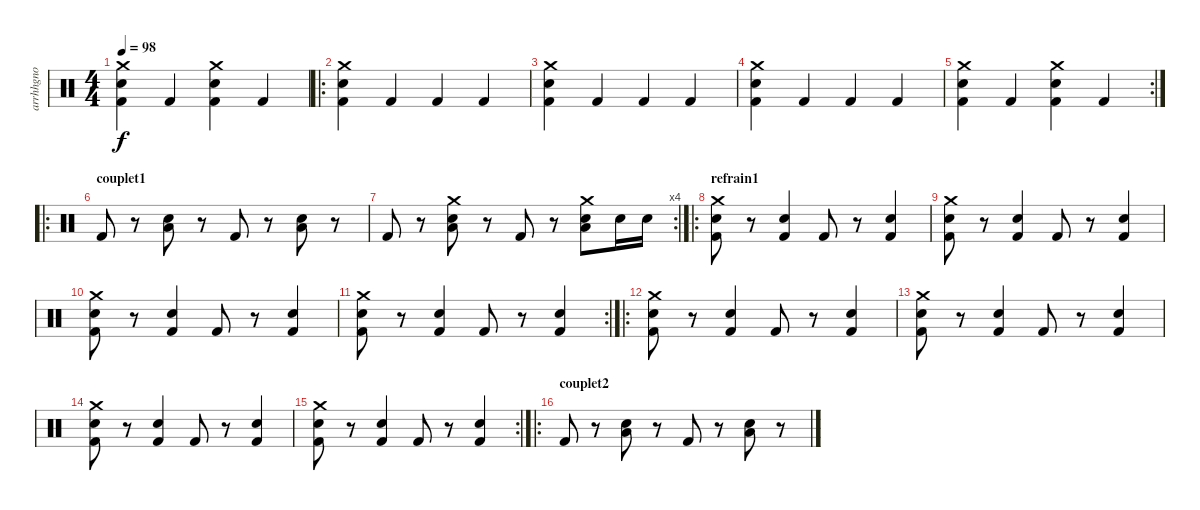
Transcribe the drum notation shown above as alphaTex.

\track ("arrhhgno" "arrhhgno") {instrument percussion}
\staff {score}
\articulation defaults
\ts (4 4)
\tempo 98
\clef neutral
\ks c
("Crash medium (hit)" "Kick (hit) 2" "Electric Snare (hit)").4{dy f} "Kick (hit) 2".4 ("Crash medium (hit)" "Electric Snare (hit)" "Kick (hit) 2").4 "Kick (hit) 2".4 |
\ro
("Crash medium (hit)" "Kick (hit) 2" "Electric Snare (hit)").4 "Kick (hit) 2".4 "Kick (hit) 2".4 "Kick (hit) 2".4 |
("Crash medium (hit)" "Kick (hit) 2" "Electric Snare (hit)").4 "Kick (hit) 2".4 "Kick (hit) 2".4 "Kick (hit) 2".4 |
("Crash medium (hit)" "Kick (hit) 2" "Electric Snare (hit)").4 "Kick (hit) 2".4 "Kick (hit) 2".4 "Kick (hit) 2".4 |
\rc 2
("Crash medium (hit)" "Kick (hit) 2" "Electric Snare (hit)").4 "Kick (hit) 2".4 ("Crash medium (hit)" "Electric Snare (hit)" "Kick (hit) 2").4 "Kick (hit) 2".4 |
\ro
\section ("" "couplet1")
"Kick (hit) 2".8 r.8 ("Low Tom (hit)" "Electric Snare (hit)").8 r.8 "Kick (hit) 2".8 r.8 ("Low Tom (hit)" "Electric Snare (hit)").8 r.8 |
\rc 4 "Kick (hit) 2".8
r.8 ("Crash medium (hit)" "Low Tom (hit)" "Electric Snare (hit)").8 r.8 "Kick (hit) 2".8 r.8 ("Crash medium (hit)" "Low Tom (hit)" "Electric Snare (hit)").8 "Electric Snare (hit)".16 "Electric Snare (hit)".16 |
\ro
\section ("" "refrain1")
("Crash medium (hit)" "Electric Snare (hit)" "Kick (hit) 2").8 r.8 ("Kick (hit) 2" "Electric Snare (hit)").4 "Kick (hit) 2".8 r.8 ("Kick (hit) 2" "Electric Snare (hit)").4 |
("Crash medium (hit)" "Electric Snare (hit)" "Kick (hit) 2").8 r.8 ("Kick (hit) 2" "Electric Snare (hit)").4 "Kick (hit) 2".8 r.8 ("Kick (hit) 2" "Electric Snare (hit)").4 |
("Crash medium (hit)" "Electric Snare (hit)" "Kick (hit) 2").8 r.8 ("Kick (hit) 2" "Electric Snare (hit)").4 "Kick (hit) 2".8 r.8 ("Kick (hit) 2" "Electric Snare (hit)").4 |
\rc 2
("Crash medium (hit)" "Electric Snare (hit)" "Kick (hit) 2").8 r.8 ("Kick (hit) 2" "Electric Snare (hit)").4 "Kick (hit) 2".8 r.8 ("Kick (hit) 2" "Electric Snare (hit)").4 |
\ro
("Crash medium (hit)" "Electric Snare (hit)" "Kick (hit) 2").8 r.8 ("Kick (hit) 2" "Electric Snare (hit)").4 "Kick (hit) 2".8 r.8 ("Kick (hit) 2" "Electric Snare (hit)").4 |
("Crash medium (hit)" "Electric Snare (hit)" "Kick (hit) 2").8 r.8 ("Kick (hit) 2" "Electric Snare (hit)").4 "Kick (hit) 2".8 r.8 ("Kick (hit) 2" "Electric Snare (hit)").4 |
("Crash medium (hit)" "Electric Snare (hit)" "Kick (hit) 2").8 r.8 ("Kick (hit) 2" "Electric Snare (hit)").4 "Kick (hit) 2".8 r.8 ("Kick (hit) 2" "Electric Snare (hit)").4 |
\rc 2
("Crash medium (hit)" "Electric Snare (hit)" "Kick (hit) 2").8 r.8 ("Kick (hit) 2" "Electric Snare (hit)").4 "Kick (hit) 2".8 r.8 ("Kick (hit) 2" "Electric Snare (hit)").4 |
\ro
\section ("" "couplet2")
"Kick (hit) 2".8 r.8 ("Low Tom (hit)" "Electric Snare (hit)").8 r.8 "Kick (hit) 2".8 r.8 ("Low Tom (hit)" "Electric Snare (hit)").8 r.8
